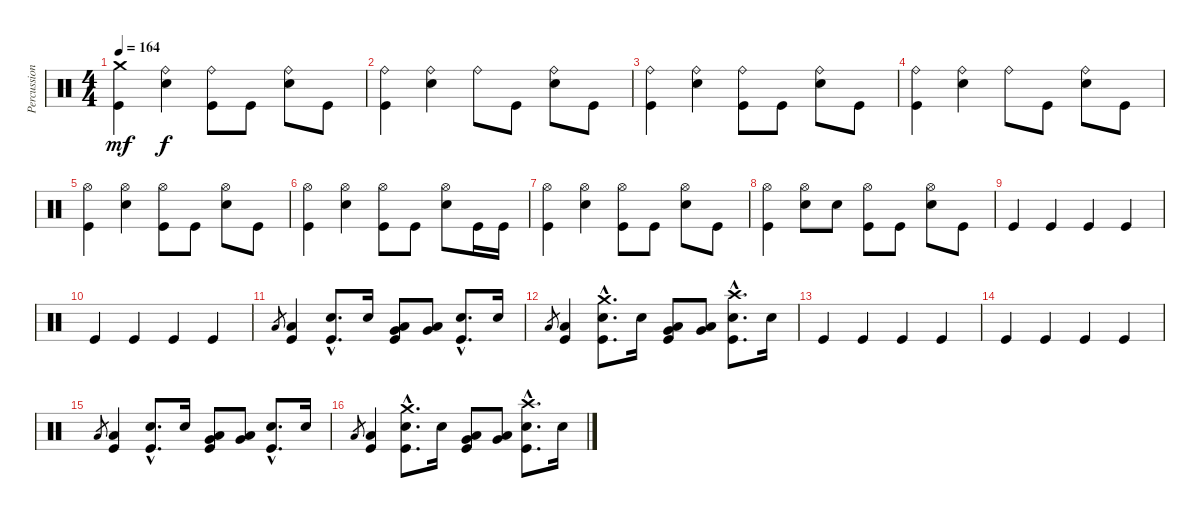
\track ("Percussion" "Percussion") {instrument percussion}
\staff {score}
\articulation defaults
\ts (4 4)
\tempo 164
\clef neutral
\ks c
("Crash medium (hit)" "Kick (hit)").4{dy mf} ("Ride (bell)" "Electric Snare (hit)").4{dy f} ("Ride (bell)" "Kick (hit)").8 "Kick (hit)".8 ("Ride (bell)" "Electric Snare (hit)").8 "Kick (hit)".8 |
("Ride (bell)" "Kick (hit)").4 ("Ride (bell)" "Electric Snare (hit)").4 "Ride (bell)".8 "Kick (hit)".8 ("Ride (bell)" "Electric Snare (hit)").8 "Kick (hit)".8 |
("Ride (bell)" "Kick (hit)").4 ("Ride (bell)" "Electric Snare (hit)").4 ("Ride (bell)" "Kick (hit)").8 "Kick (hit)".8 ("Ride (bell)" "Electric Snare (hit)").8 "Kick (hit)".8 |
("Ride (bell)" "Kick (hit)").4 ("Ride (bell)" "Electric Snare (hit)").4 "Ride (bell)".8 "Kick (hit)".8 ("Ride (bell)" "Electric Snare (hit)").8 "Kick (hit)".8 |
("Hi-Hat (open)" "Kick (hit)").4 ("Hi-Hat (open)" "Electric Snare (hit)").4 ("Hi-Hat (open)" "Kick (hit)").8 "Kick (hit)".8 ("Hi-Hat (open)" "Electric Snare (hit)").8 "Kick (hit)".8 |
("Hi-Hat (open)" "Kick (hit)").4 ("Hi-Hat (open)" "Electric Snare (hit)").4 ("Hi-Hat (open)" "Kick (hit)").8 "Kick (hit)".8 ("Hi-Hat (open)" "Electric Snare (hit)").8 "Kick (hit)".16 "Kick (hit)".16 |
("Hi-Hat (open)" "Kick (hit)").4 ("Hi-Hat (open)" "Electric Snare (hit)").4 ("Hi-Hat (open)" "Kick (hit)").8 "Kick (hit)".8 ("Hi-Hat (open)" "Electric Snare (hit)").8 "Kick (hit)".8 |
("Hi-Hat (open)" "Kick (hit)").4 ("Hi-Hat (open)" "Electric Snare (hit)").8 "Electric Snare (hit)".8 ("Hi-Hat (open)" "Kick (hit)").8 "Kick (hit)".8 ("Hi-Hat (open)" "Electric Snare (hit)").8 "Kick (hit)".8 |
"Kick (hit)".4 "Kick (hit)".4 "Kick (hit)".4 "Kick (hit)".4 |
"Kick (hit)".4 "Kick (hit)".4 "Kick (hit)".4 "Kick (hit)".4 |
"Low Tom (hit)".8{gr} ("Low Tom (hit)" "Kick (hit)").4 ("Electric Snare (hit)"{hac} "Kick (hit)"{hac}).8{d} "Electric Snare (hit)".16 ("Low Tom (hit)" "Very Low Tom (hit)" "Kick (hit)").8 ("Low Tom (hit)" "Very Low Tom (hit)").8 ("Electric Snare (hit)"{hac} "Kick (hit)"{hac}).8{d} "Electric Snare (hit)".16 |
"Low Tom (hit)".8{gr} ("Low Tom (hit)" "Kick (hit)").4 ("Crash medium (hit)"{hac} "Electric Snare (hit)"{hac} "Kick (hit)"{hac}).8{d} "Electric Snare (hit)".16 ("Low Tom (hit)" "Very Low Tom (hit)" "Kick (hit)").8 ("Low Tom (hit)" "Very Low Tom (hit)").8 ("Crash high (hit)"{hac} "Electric Snare (hit)"{hac} "Kick (hit)"{hac}).8{d} "Electric Snare (hit)".16 |
"Kick (hit)".4 "Kick (hit)".4 "Kick (hit)".4 "Kick (hit)".4 |
"Kick (hit)".4 "Kick (hit)".4 "Kick (hit)".4 "Kick (hit)".4 |
"Low Tom (hit)".8{gr} ("Low Tom (hit)" "Kick (hit)").4 ("Electric Snare (hit)"{hac} "Kick (hit)"{hac}).8{d} "Electric Snare (hit)".16 ("Low Tom (hit)" "Very Low Tom (hit)" "Kick (hit)").8 ("Low Tom (hit)" "Very Low Tom (hit)").8 ("Electric Snare (hit)"{hac} "Kick (hit)"{hac}).8{d} "Electric Snare (hit)".16 |
"Low Tom (hit)".8{gr} ("Low Tom (hit)" "Kick (hit)").4 ("Crash medium (hit)"{hac} "Electric Snare (hit)"{hac} "Kick (hit)"{hac}).8{d} "Electric Snare (hit)".16 ("Low Tom (hit)" "Very Low Tom (hit)" "Kick (hit)").8 ("Low Tom (hit)" "Very Low Tom (hit)").8 ("Crash high (hit)"{hac} "Electric Snare (hit)"{hac} "Kick (hit)"{hac}).8{d} "Electric Snare (hit)".16
